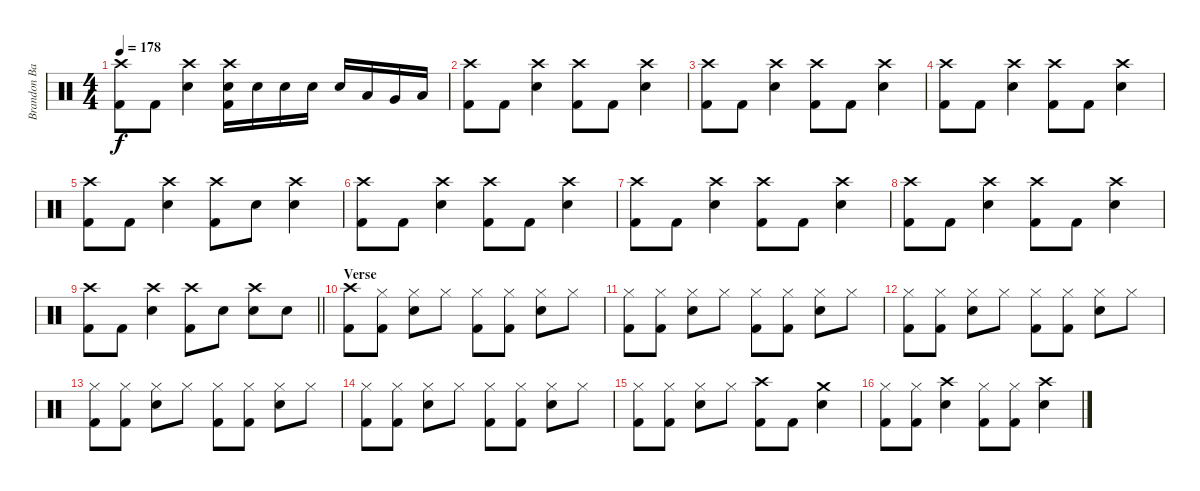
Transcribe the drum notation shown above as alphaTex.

\track ("Brandon Barnes - Drums" "Brandon Ba") {instrument percussion}
\staff {score}
\articulation defaults
\ts (4 4)
\tempo 178
\clef neutral
\ks c
("Crash high (hit)" "Kick (hit) 2").8{dy f} "Kick (hit) 2".8 ("Snare (hit) 2" "Crash high (hit)").4 ("Crash high (hit)" "Kick (hit) 2" "Snare (hit) 2").16 "Snare (hit) 2".16 "Snare (hit) 2".16 "Snare (hit) 2".16 "Snare (hit) 2".16 "Low Tom (hit)".16 "Very Low Tom (hit)".16 "Low Floor Tom (hit)".16 |
("Crash high (hit)" "Kick (hit) 2").8 "Kick (hit) 2".8 ("Snare (hit) 2" "Crash high (hit)").4 ("Crash high (hit)" "Kick (hit) 2").8 "Kick (hit) 2".8 ("Snare (hit) 2" "Crash high (hit)").4 |
("Crash high (hit)" "Kick (hit) 2").8 "Kick (hit) 2".8 ("Snare (hit) 2" "Crash high (hit)").4 ("Crash high (hit)" "Kick (hit) 2").8 "Kick (hit) 2".8 ("Snare (hit) 2" "Crash high (hit)").4 |
("Crash high (hit)" "Kick (hit) 2").8 "Kick (hit) 2".8 ("Snare (hit) 2" "Crash high (hit)").4 ("Crash high (hit)" "Kick (hit) 2").8 "Kick (hit) 2".8 ("Snare (hit) 2" "Crash high (hit)").4 |
("Crash high (hit)" "Kick (hit) 2").8 "Kick (hit) 2".8 ("Snare (hit) 2" "Crash high (hit)").4 ("Crash high (hit)" "Kick (hit) 2").8 "Snare (hit) 2".8 ("Snare (hit) 2" "Crash high (hit)").4 |
("Crash high (hit)" "Kick (hit) 2").8 "Kick (hit) 2".8 ("Snare (hit) 2" "Crash high (hit)").4 ("Crash high (hit)" "Kick (hit) 2").8 "Kick (hit) 2".8 ("Snare (hit) 2" "Crash high (hit)").4 |
("Crash high (hit)" "Kick (hit) 2").8 "Kick (hit) 2".8 ("Snare (hit) 2" "Crash high (hit)").4 ("Crash high (hit)" "Kick (hit) 2").8 "Kick (hit) 2".8 ("Snare (hit) 2" "Crash high (hit)").4 |
("Crash high (hit)" "Kick (hit) 2").8 "Kick (hit) 2".8 ("Snare (hit) 2" "Crash high (hit)").4 ("Crash high (hit)" "Kick (hit) 2").8 "Kick (hit) 2".8 ("Snare (hit) 2" "Crash high (hit)").4 |
\barLineRight lightlight
("Crash high (hit)" "Kick (hit) 2").8 "Kick (hit) 2".8 ("Snare (hit) 2" "Crash high (hit)").4 ("Crash high (hit)" "Kick (hit) 2").8 "Snare (hit) 2".8 ("Snare (hit) 2" "Crash high (hit)").8 "Snare (hit) 2".8 |
\section ("" "Verse")
("Kick (hit) 2" "Crash high (hit)").8 ("Kick (hit) 2" "Hi-Hat (closed)").8 ("Snare (hit) 2" "Hi-Hat (closed)").8 "Hi-Hat (closed)".8 ("Kick (hit) 2" "Hi-Hat (closed)").8 ("Kick (hit) 2" "Hi-Hat (closed)").8 ("Snare (hit) 2" "Hi-Hat (closed)").8 "Hi-Hat (closed)".8 |
("Kick (hit) 2" "Hi-Hat (closed)").8 ("Kick (hit) 2" "Hi-Hat (closed)").8 ("Snare (hit) 2" "Hi-Hat (closed)").8 "Hi-Hat (closed)".8 ("Kick (hit) 2" "Hi-Hat (closed)").8 ("Kick (hit) 2" "Hi-Hat (closed)").8 ("Snare (hit) 2" "Hi-Hat (closed)").8 "Hi-Hat (closed)".8 |
("Kick (hit) 2" "Hi-Hat (closed)").8 ("Kick (hit) 2" "Hi-Hat (closed)").8 ("Snare (hit) 2" "Hi-Hat (closed)").8 "Hi-Hat (closed)".8 ("Kick (hit) 2" "Hi-Hat (closed)").8 ("Kick (hit) 2" "Hi-Hat (closed)").8 ("Snare (hit) 2" "Hi-Hat (closed)").8 "Hi-Hat (closed)".8 |
("Kick (hit) 2" "Hi-Hat (closed)").8 ("Kick (hit) 2" "Hi-Hat (closed)").8 ("Snare (hit) 2" "Hi-Hat (closed)").8 "Hi-Hat (closed)".8 ("Kick (hit) 2" "Hi-Hat (closed)").8 ("Kick (hit) 2" "Hi-Hat (closed)").8 ("Snare (hit) 2" "Hi-Hat (closed)").8 "Hi-Hat (closed)".8 |
("Kick (hit) 2" "Hi-Hat (closed)").8 ("Kick (hit) 2" "Hi-Hat (closed)").8 ("Snare (hit) 2" "Hi-Hat (closed)").8 "Hi-Hat (closed)".8 ("Kick (hit) 2" "Hi-Hat (closed)").8 ("Kick (hit) 2" "Hi-Hat (closed)").8 ("Snare (hit) 2" "Hi-Hat (closed)").8 "Hi-Hat (closed)".8 |
("Kick (hit) 2" "Hi-Hat (closed)").8 ("Kick (hit) 2" "Hi-Hat (closed)").8 ("Snare (hit) 2" "Hi-Hat (closed)").8 "Hi-Hat (closed)".8 ("Kick (hit) 2" "Crash high (hit)").8 "Kick (hit) 2".8 ("Snare (hit) 2" "Crash medium (hit)").4 |
("Kick (hit) 2" "Hi-Hat (closed)").8 ("Kick (hit) 2" "Hi-Hat (closed)").8 ("Snare (hit) 2" "Crash high (hit)").4 ("Kick (hit) 2" "Hi-Hat (closed)").8 ("Kick (hit) 2" "Hi-Hat (closed)").8 ("Snare (hit) 2" "Crash high (hit)").4
